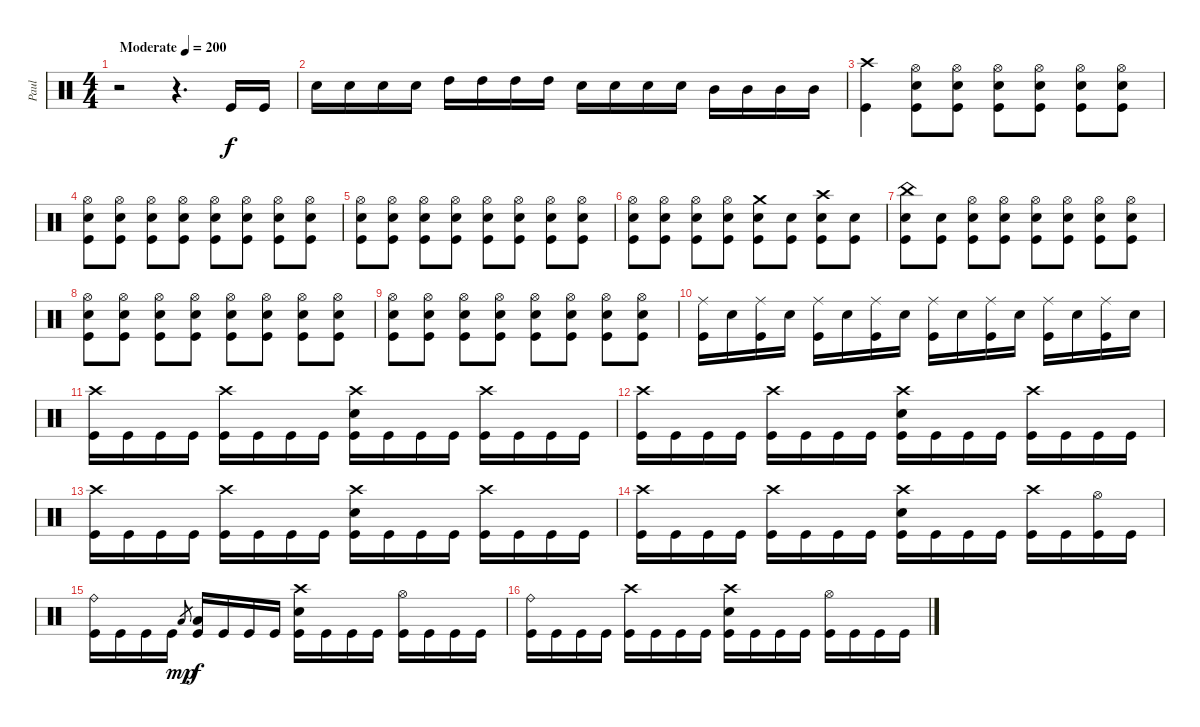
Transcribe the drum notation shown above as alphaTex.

\track ("Paul" "Paul") {instrument percussion}
\staff {score}
\articulation defaults
\ts (4 4)
\tempo (200 "Moderate")
\clef neutral
\ks c
r.2{dy f} r.4{d} "Kick (hit)".16 "Kick (hit)".16 |
"Electric Snare (hit)".16 "Electric Snare (hit)".16 "Electric Snare (hit)".16 "Electric Snare (hit)".16 "High Tom (hit)".16 "High Tom (hit)".16 "High Tom (hit)".16 "High Tom (hit)".16 "Electric Snare (hit)".16 "Electric Snare (hit)".16 "Electric Snare (hit)".16 "Electric Snare (hit)".16 "Mid Tom (hit)".16 "Mid Tom (hit)".16 "Mid Tom (hit)".16 "Mid Tom (hit)".16 |
("Crash high (hit)" "Kick (hit)").4 ("Hi-Hat (open)" "Electric Snare (hit)" "Kick (hit)").8 ("Hi-Hat (open)" "Electric Snare (hit)" "Kick (hit)").8 ("Hi-Hat (open)" "Electric Snare (hit)" "Kick (hit)").8 ("Hi-Hat (open)" "Electric Snare (hit)" "Kick (hit)").8 ("Hi-Hat (open)" "Electric Snare (hit)" "Kick (hit)").8 ("Hi-Hat (open)" "Electric Snare (hit)" "Kick (hit)").8 |
("Hi-Hat (open)" "Electric Snare (hit)" "Kick (hit)").8 ("Hi-Hat (open)" "Electric Snare (hit)" "Kick (hit)").8 ("Hi-Hat (open)" "Electric Snare (hit)" "Kick (hit)").8 ("Hi-Hat (open)" "Electric Snare (hit)" "Kick (hit)").8 ("Hi-Hat (open)" "Electric Snare (hit)" "Kick (hit)").8 ("Hi-Hat (open)" "Electric Snare (hit)" "Kick (hit)").8 ("Hi-Hat (open)" "Electric Snare (hit)" "Kick (hit)").8 ("Hi-Hat (open)" "Electric Snare (hit)" "Kick (hit)").8 |
("Hi-Hat (open)" "Electric Snare (hit)" "Kick (hit)").8 ("Hi-Hat (open)" "Electric Snare (hit)" "Kick (hit)").8 ("Hi-Hat (open)" "Electric Snare (hit)" "Kick (hit)").8 ("Hi-Hat (open)" "Electric Snare (hit)" "Kick (hit)").8 ("Hi-Hat (open)" "Electric Snare (hit)" "Kick (hit)").8 ("Hi-Hat (open)" "Electric Snare (hit)" "Kick (hit)").8 ("Hi-Hat (open)" "Electric Snare (hit)" "Kick (hit)").8 ("Hi-Hat (open)" "Electric Snare (hit)" "Kick (hit)").8 |
("Hi-Hat (open)" "Electric Snare (hit)" "Kick (hit)").8 ("Hi-Hat (open)" "Electric Snare (hit)" "Kick (hit)").8 ("Hi-Hat (open)" "Electric Snare (hit)" "Kick (hit)").8 ("Hi-Hat (open)" "Electric Snare (hit)" "Kick (hit)").8 ("Crash medium (hit)" "Electric Snare (hit)" "Kick (hit)").8 ("Electric Snare (hit)" "Kick (hit)").8 ("Crash high (hit)" "Electric Snare (hit)" "Kick (hit)").8 ("Electric Snare (hit)" "Kick (hit)").8 |
("China (hit)" "Electric Snare (hit)" "Kick (hit)").8 ("Electric Snare (hit)" "Kick (hit)").8 ("Hi-Hat (open)" "Electric Snare (hit)" "Kick (hit)").8 ("Hi-Hat (open)" "Electric Snare (hit)" "Kick (hit)").8 ("Hi-Hat (open)" "Electric Snare (hit)" "Kick (hit)").8 ("Hi-Hat (open)" "Electric Snare (hit)" "Kick (hit)").8 ("Hi-Hat (open)" "Electric Snare (hit)" "Kick (hit)").8 ("Hi-Hat (open)" "Electric Snare (hit)" "Kick (hit)").8 |
("Hi-Hat (open)" "Electric Snare (hit)" "Kick (hit)").8 ("Hi-Hat (open)" "Electric Snare (hit)" "Kick (hit)").8 ("Hi-Hat (open)" "Electric Snare (hit)" "Kick (hit)").8 ("Hi-Hat (open)" "Electric Snare (hit)" "Kick (hit)").8 ("Hi-Hat (open)" "Electric Snare (hit)" "Kick (hit)").8 ("Hi-Hat (open)" "Electric Snare (hit)" "Kick (hit)").8 ("Hi-Hat (open)" "Electric Snare (hit)" "Kick (hit)").8 ("Hi-Hat (open)" "Electric Snare (hit)" "Kick (hit)").8 |
("Hi-Hat (open)" "Electric Snare (hit)" "Kick (hit)").8 ("Hi-Hat (open)" "Electric Snare (hit)" "Kick (hit)").8 ("Hi-Hat (open)" "Electric Snare (hit)" "Kick (hit)").8 ("Hi-Hat (open)" "Electric Snare (hit)" "Kick (hit)").8 ("Hi-Hat (open)" "Electric Snare (hit)" "Kick (hit)").8 ("Hi-Hat (open)" "Electric Snare (hit)" "Kick (hit)").8 ("Hi-Hat (open)" "Electric Snare (hit)" "Kick (hit)").8 ("Hi-Hat (open)" "Electric Snare (hit)" "Kick (hit)").8 |
("Ride (middle)" "Kick (hit)").16 "Electric Snare (hit)".16 ("Ride (middle)" "Kick (hit)").16 "Electric Snare (hit)".16 ("Ride (middle)" "Kick (hit)").16 "Electric Snare (hit)".16 ("Ride (middle)" "Kick (hit)").16 "Electric Snare (hit)".16 ("Ride (middle)" "Kick (hit)").16 "Electric Snare (hit)".16 ("Ride (middle)" "Kick (hit)").16 "Electric Snare (hit)".16 ("Ride (middle)" "Kick (hit)").16 "Electric Snare (hit)".16 ("Ride (middle)" "Kick (hit)").16 "Electric Snare (hit)".16 |
("Crash high (hit)" "Kick (hit)").16 "Kick (hit)".16 "Kick (hit)".16 "Kick (hit)".16 ("Crash high (hit)" "Kick (hit)").16 "Kick (hit)".16 "Kick (hit)".16 "Kick (hit)".16 ("Crash high (hit)" "Electric Snare (hit)" "Kick (hit)").16 "Kick (hit)".16 "Kick (hit)".16 "Kick (hit)".16 ("Crash high (hit)" "Kick (hit)").16 "Kick (hit)".16 "Kick (hit)".16 "Kick (hit)".16 |
("Crash high (hit)" "Kick (hit)").16 "Kick (hit)".16 "Kick (hit)".16 "Kick (hit)".16 ("Crash high (hit)" "Kick (hit)").16 "Kick (hit)".16 "Kick (hit)".16 "Kick (hit)".16 ("Crash high (hit)" "Electric Snare (hit)" "Kick (hit)").16 "Kick (hit)".16 "Kick (hit)".16 "Kick (hit)".16 ("Crash high (hit)" "Kick (hit)").16 "Kick (hit)".16 "Kick (hit)".16 "Kick (hit)".16 |
("Crash high (hit)" "Kick (hit)").16 "Kick (hit)".16 "Kick (hit)".16 "Kick (hit)".16 ("Crash high (hit)" "Kick (hit)").16 "Kick (hit)".16 "Kick (hit)".16 "Kick (hit)".16 ("Crash high (hit)" "Electric Snare (hit)" "Kick (hit)").16 "Kick (hit)".16 "Kick (hit)".16 "Kick (hit)".16 ("Crash high (hit)" "Kick (hit)").16 "Kick (hit)".16 "Kick (hit)".16 "Kick (hit)".16 |
("Crash high (hit)" "Kick (hit)").16 "Kick (hit)".16 "Kick (hit)".16 "Kick (hit)".16 ("Crash high (hit)" "Kick (hit)").16 "Kick (hit)".16 "Kick (hit)".16 "Kick (hit)".16 ("Crash high (hit)" "Electric Snare (hit)" "Kick (hit)").16 "Kick (hit)".16 "Kick (hit)".16 "Kick (hit)".16 ("Crash high (hit)" "Kick (hit)").16 "Kick (hit)".16 ("Hi-Hat (open)" "Kick (hit)").16 "Kick (hit)".16 |
("Ride (bell)" "Kick (hit)").16 "Kick (hit)".16 "Kick (hit)".16 "Kick (hit)".16 "Low Floor Tom (hit)".8{gr dy mp} ("Low Floor Tom (hit)" "Kick (hit)").16{dy f} "Kick (hit)".16 "Kick (hit)".16 "Kick (hit)".16 ("Crash high (hit)" "Electric Snare (hit)" "Kick (hit)").16 "Kick (hit)".16 "Kick (hit)".16 "Kick (hit)".16 ("Hi-Hat (open)" "Kick (hit)").16 "Kick (hit)".16 "Kick (hit)".16 "Kick (hit)".16 |
("Ride (bell)" "Kick (hit)").16 "Kick (hit)".16 "Kick (hit)".16 "Kick (hit)".16 ("Crash high (hit)" "Kick (hit)").16 "Kick (hit)".16 "Kick (hit)".16 "Kick (hit)".16 ("Crash high (hit)" "Electric Snare (hit)" "Kick (hit)").16 "Kick (hit)".16 "Kick (hit)".16 "Kick (hit)".16 ("Hi-Hat (open)" "Kick (hit)").16 "Kick (hit)".16 "Kick (hit)".16 "Kick (hit)".16
